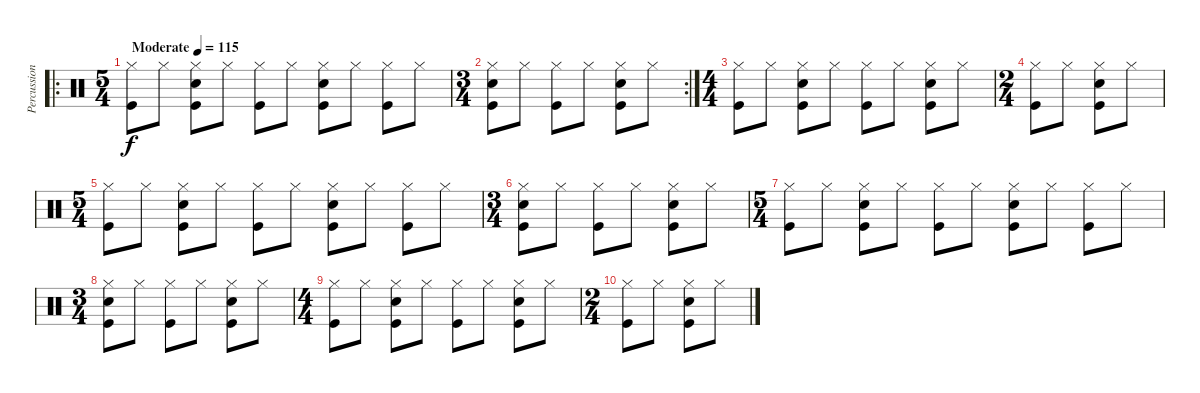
\track ("Percussion" "Percussion") {instrument percussion}
\staff {score}
\articulation defaults
\ro
\ts (5 4)
\tempo (115 "Moderate")
\clef neutral
\ks c
("Hi-Hat (closed)" "Kick (hit)").8{dy f} "Hi-Hat (closed)".8 ("Hi-Hat (closed)" "Snare (hit) 2" "Kick (hit)").8 "Hi-Hat (closed)".8 ("Hi-Hat (closed)" "Kick (hit)").8 "Hi-Hat (closed)".8 ("Hi-Hat (closed)" "Snare (hit) 2" "Kick (hit)").8 "Hi-Hat (closed)".8 ("Hi-Hat (closed)" "Kick (hit)").8 "Hi-Hat (closed)".8 |
\rc 2
\ts (3 4)
("Hi-Hat (closed)" "Snare (hit) 2" "Kick (hit)").8 "Hi-Hat (closed)".8 ("Hi-Hat (closed)" "Kick (hit)").8 "Hi-Hat (closed)".8 ("Hi-Hat (closed)" "Snare (hit) 2" "Kick (hit)").8 "Hi-Hat (closed)".8 |
\ts (4 4)
("Hi-Hat (closed)" "Kick (hit)").8 "Hi-Hat (closed)".8 ("Hi-Hat (closed)" "Snare (hit) 2" "Kick (hit)").8 "Hi-Hat (closed)".8 ("Hi-Hat (closed)" "Kick (hit)").8 "Hi-Hat (closed)".8 ("Hi-Hat (closed)" "Snare (hit) 2" "Kick (hit)").8 "Hi-Hat (closed)".8 |
\ts (2 4)
("Hi-Hat (closed)" "Kick (hit)").8 "Hi-Hat (closed)".8 ("Hi-Hat (closed)" "Snare (hit) 2" "Kick (hit)").8 "Hi-Hat (closed)".8 |
\ts (5 4)
("Hi-Hat (closed)" "Kick (hit)").8 "Hi-Hat (closed)".8 ("Hi-Hat (closed)" "Snare (hit) 2" "Kick (hit)").8 "Hi-Hat (closed)".8 ("Hi-Hat (closed)" "Kick (hit)").8 "Hi-Hat (closed)".8 ("Hi-Hat (closed)" "Snare (hit) 2" "Kick (hit)").8 "Hi-Hat (closed)".8 ("Hi-Hat (closed)" "Kick (hit)").8 "Hi-Hat (closed)".8 |
\ts (3 4)
("Hi-Hat (closed)" "Snare (hit) 2" "Kick (hit)").8 "Hi-Hat (closed)".8 ("Hi-Hat (closed)" "Kick (hit)").8 "Hi-Hat (closed)".8 ("Hi-Hat (closed)" "Snare (hit) 2" "Kick (hit)").8 "Hi-Hat (closed)".8 |
\ts (5 4)
("Hi-Hat (closed)" "Kick (hit)").8 "Hi-Hat (closed)".8 ("Hi-Hat (closed)" "Snare (hit) 2" "Kick (hit)").8 "Hi-Hat (closed)".8 ("Hi-Hat (closed)" "Kick (hit)").8 "Hi-Hat (closed)".8 ("Hi-Hat (closed)" "Snare (hit) 2" "Kick (hit)").8 "Hi-Hat (closed)".8 ("Hi-Hat (closed)" "Kick (hit)").8 "Hi-Hat (closed)".8 |
\ts (3 4)
("Hi-Hat (closed)" "Snare (hit) 2" "Kick (hit)").8 "Hi-Hat (closed)".8 ("Hi-Hat (closed)" "Kick (hit)").8 "Hi-Hat (closed)".8 ("Hi-Hat (closed)" "Snare (hit) 2" "Kick (hit)").8 "Hi-Hat (closed)".8 |
\ts (4 4)
("Hi-Hat (closed)" "Kick (hit)").8 "Hi-Hat (closed)".8 ("Hi-Hat (closed)" "Snare (hit) 2" "Kick (hit)").8 "Hi-Hat (closed)".8 ("Hi-Hat (closed)" "Kick (hit)").8 "Hi-Hat (closed)".8 ("Hi-Hat (closed)" "Snare (hit) 2" "Kick (hit)").8 "Hi-Hat (closed)".8 |
\ts (2 4)
("Hi-Hat (closed)" "Kick (hit)").8 "Hi-Hat (closed)".8 ("Hi-Hat (closed)" "Snare (hit) 2" "Kick (hit)").8 "Hi-Hat (closed)".8
